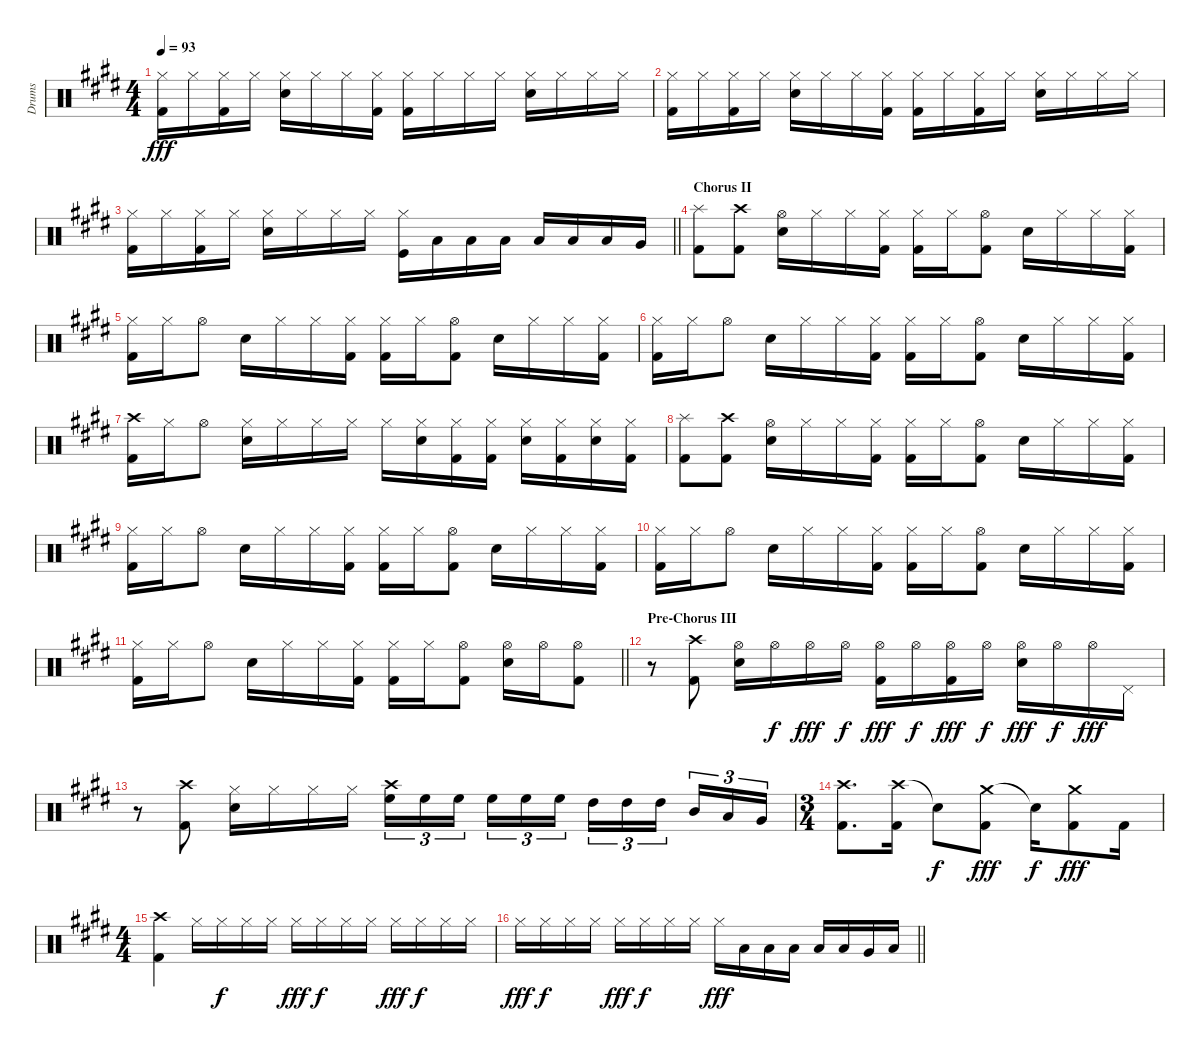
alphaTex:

\track ("Drums" "Drums") {instrument percussion}
\staff {score}
\articulation defaults
\ts (4 4)
\tempo 93
\clef neutral
\ks e
("Hi-Hat (closed)" "Kick (hit) 2").16{dy fff} "Hi-Hat (closed)".16 ("Hi-Hat (closed)" "Kick (hit) 2").16 "Hi-Hat (closed)".16 ("Hi-Hat (closed)" "Snare (hit) 2").16 "Hi-Hat (closed)".16 "Hi-Hat (closed)".16 ("Hi-Hat (closed)" "Kick (hit) 2").16 ("Hi-Hat (closed)" "Kick (hit) 2").16 "Hi-Hat (closed)".16 "Hi-Hat (closed)".16 "Hi-Hat (closed)".16 ("Hi-Hat (closed)" "Snare (hit) 2").16 "Hi-Hat (closed)".16 "Hi-Hat (closed)".16 "Hi-Hat (closed)".16 |
("Hi-Hat (closed)" "Kick (hit) 2").16 "Hi-Hat (closed)".16 ("Hi-Hat (closed)" "Kick (hit) 2").16 "Hi-Hat (closed)".16 ("Hi-Hat (closed)" "Snare (hit) 2").16 "Hi-Hat (closed)".16 "Hi-Hat (closed)".16 ("Hi-Hat (closed)" "Kick (hit) 2").16 ("Hi-Hat (closed)" "Kick (hit) 2").16 "Hi-Hat (closed)".16 ("Hi-Hat (closed)" "Kick (hit) 2").16 "Hi-Hat (closed)".16 ("Hi-Hat (closed)" "Snare (hit) 2").16 "Hi-Hat (closed)".16 "Hi-Hat (closed)".16 "Hi-Hat (closed)".16 |
\barLineRight lightlight
("Hi-Hat (closed)" "Kick (hit) 2").16 "Hi-Hat (closed)".16 ("Hi-Hat (closed)" "Kick (hit) 2").16 "Hi-Hat (closed)".16 ("Hi-Hat (closed)" "Snare (hit) 2").16 "Hi-Hat (closed)".16 "Hi-Hat (closed)".16 "Hi-Hat (closed)".16 ("Hi-Hat (closed)" "Kick (hit)").16 "Low Tom (hit)".16 "Low Tom (hit)".16 "Low Tom (hit)".16 "Low Tom (hit)".16 "Low Tom (hit)".16 "Low Tom (hit)".16 "Very Low Tom (hit)".16 |
\section ("" "Chorus II")
("Splash (hit)" "Kick (hit) 2").8 ("Crash high (hit)" "Kick (hit) 2").8 ("Hi-Hat (open)" "Snare (hit) 2").16 "Hi-Hat (closed)".16 "Hi-Hat (closed)".16 ("Hi-Hat (closed)" "Kick (hit) 2").16 ("Hi-Hat (closed)" "Kick (hit) 2").16 "Hi-Hat (closed)".16 ("Hi-Hat (open)" "Kick (hit) 2").8 "Snare (hit) 2".16 "Hi-Hat (closed)".16 "Hi-Hat (closed)".16 ("Hi-Hat (closed)" "Kick (hit) 2").16 |
("Hi-Hat (closed)" "Kick (hit) 2").16 "Hi-Hat (closed)".16 "Hi-Hat (open)".8 "Snare (hit) 2".16 "Hi-Hat (closed)".16 "Hi-Hat (closed)".16 ("Hi-Hat (closed)" "Kick (hit) 2").16 ("Hi-Hat (closed)" "Kick (hit) 2").16 "Hi-Hat (closed)".16 ("Hi-Hat (open)" "Kick (hit) 2").8 "Snare (hit) 2".16 "Hi-Hat (closed)".16 "Hi-Hat (closed)".16 ("Hi-Hat (closed)" "Kick (hit) 2").16 |
("Hi-Hat (closed)" "Kick (hit) 2").16 "Hi-Hat (closed)".16 "Hi-Hat (open)".8 "Snare (hit) 2".16 "Hi-Hat (closed)".16 "Hi-Hat (closed)".16 ("Hi-Hat (closed)" "Kick (hit) 2").16 ("Hi-Hat (closed)" "Kick (hit) 2").16 "Hi-Hat (closed)".16 ("Hi-Hat (open)" "Kick (hit) 2").8 "Snare (hit) 2".16 "Hi-Hat (closed)".16 "Hi-Hat (closed)".16 ("Hi-Hat (closed)" "Kick (hit) 2").16 |
("Crash high (hit)" "Kick (hit) 2").16 "Hi-Hat (closed)".16 "Hi-Hat (open)".8 ("Hi-Hat (closed)" "Snare (hit) 2").16 "Hi-Hat (closed)".16 "Hi-Hat (closed)".16 "Hi-Hat (closed)".16 "Hi-Hat (closed)".16 ("Hi-Hat (closed)" "Snare (hit) 2").16 ("Hi-Hat (closed)" "Kick (hit) 2").16 ("Hi-Hat (closed)" "Kick (hit) 2").16 ("Hi-Hat (closed)" "Snare (hit) 2").16 ("Hi-Hat (closed)" "Kick (hit) 2").16 ("Hi-Hat (closed)" "Snare (hit) 2").16 ("Hi-Hat (closed)" "Kick (hit) 2").16 |
("Splash (hit)" "Kick (hit) 2").8 ("Crash high (hit)" "Kick (hit) 2").8 ("Hi-Hat (open)" "Snare (hit) 2").16 "Hi-Hat (closed)".16 "Hi-Hat (closed)".16 ("Hi-Hat (closed)" "Kick (hit) 2").16 ("Hi-Hat (closed)" "Kick (hit) 2").16 "Hi-Hat (closed)".16 ("Hi-Hat (open)" "Kick (hit) 2").8 "Snare (hit) 2".16 "Hi-Hat (closed)".16 "Hi-Hat (closed)".16 ("Hi-Hat (closed)" "Kick (hit) 2").16 |
("Hi-Hat (closed)" "Kick (hit) 2").16 "Hi-Hat (closed)".16 "Hi-Hat (open)".8 "Snare (hit) 2".16 "Hi-Hat (closed)".16 "Hi-Hat (closed)".16 ("Hi-Hat (closed)" "Kick (hit) 2").16 ("Hi-Hat (closed)" "Kick (hit) 2").16 "Hi-Hat (closed)".16 ("Hi-Hat (open)" "Kick (hit) 2").8 "Snare (hit) 2".16 "Hi-Hat (closed)".16 "Hi-Hat (closed)".16 ("Hi-Hat (closed)" "Kick (hit) 2").16 |
("Hi-Hat (closed)" "Kick (hit) 2").16 "Hi-Hat (closed)".16 "Hi-Hat (open)".8 "Snare (hit) 2".16 "Hi-Hat (closed)".16 "Hi-Hat (closed)".16 ("Hi-Hat (closed)" "Kick (hit) 2").16 ("Hi-Hat (closed)" "Kick (hit) 2").16 "Hi-Hat (closed)".16 ("Hi-Hat (open)" "Kick (hit) 2").8 "Snare (hit) 2".16 "Hi-Hat (closed)".16 "Hi-Hat (closed)".16 ("Hi-Hat (closed)" "Kick (hit) 2").16 |
\barLineRight lightlight
("Hi-Hat (closed)" "Kick (hit) 2").16 "Hi-Hat (closed)".16 "Hi-Hat (open)".8 "Snare (hit) 2".16 "Hi-Hat (closed)".16 "Hi-Hat (closed)".16 ("Hi-Hat (closed)" "Kick (hit) 2").16 ("Hi-Hat (closed)" "Kick (hit) 2").16 "Hi-Hat (closed)".16 ("Hi-Hat (open)" "Kick (hit) 2").8 ("Hi-Hat (open)" "Snare (hit) 2").16 "Hi-Hat (open)".16 ("Hi-Hat (open)" "Kick (hit) 2").8 |
\section ("" "Pre-Chorus III")
r.8 ("Crash high (hit)" "Kick (hit) 2").8 ("Hi-Hat (open)" "Snare (hit) 2").16 "Hi-Hat (open)".16{dy f} "Hi-Hat (open)".16{dy fff} "Hi-Hat (open)".16{dy f} ("Hi-Hat (open)" "Kick (hit) 2").16{dy fff} "Hi-Hat (open)".16{dy f} ("Hi-Hat (open)" "Kick (hit) 2").16{dy fff} "Hi-Hat (open)".16{dy f} ("Hi-Hat (open)" "Snare (hit) 2").16{dy fff} "Hi-Hat (open)".16{dy f} "Hi-Hat (open)".16{dy fff} "Pedal Hi-Hat (hit)".16 |
r.8 ("Crash high (hit)" "Kick (hit) 2").8 ("Hi-Hat (closed)" "Snare (hit) 2").16 "Hi-Hat (closed)".16 "Hi-Hat (closed)".16 "Hi-Hat (closed)".16 ("Crash high (hit)" "High Floor Tom (hit)").16{tu (3 2)} "High Floor Tom (hit)".16{tu (3 2)} "High Floor Tom (hit)".16{tu (3 2) beam splitsecondary} "High Floor Tom (hit)".16{tu (3 2)} "High Floor Tom (hit)".16{tu (3 2)} "High Floor Tom (hit)".16{tu (3 2)} "High Tom (hit)".16{tu (3 2)} "High Tom (hit)".16{tu (3 2)} "High Tom (hit)".16{tu (3 2) beam splitsecondary} "Mid Tom (hit)".16{tu (3 2)} "Low Tom (hit)".16{tu (3 2)} "Very Low Tom (hit)".16{tu (3 2)} |
\ts (3 4)
("Crash high (hit)" "Kick (hit) 2").8{d} ("Crash high (hit)" "Kick (hit) 2").16 "Snare (hit)"{t}.8{dy f} ("Crash medium (hit)" "Kick (hit) 2").8{dy fff} "Snare (hit)"{t}.16{dy f} ("Crash medium (hit)" "Kick (hit) 2").8{dy fff} "Kick (hit) 2".16 |
\ts (4 4)
("Crash high (hit)" "Kick (hit) 2").4 "Hi-Hat (closed)".16 "Hi-Hat (closed)".16{dy f} "Hi-Hat (closed)".16 "Hi-Hat (closed)".16 "Hi-Hat (closed)".16{dy fff} "Hi-Hat (closed)".16{dy f} "Hi-Hat (closed)".16 "Hi-Hat (closed)".16 "Hi-Hat (closed)".16{dy fff} "Hi-Hat (closed)".16{dy f} "Hi-Hat (closed)".16 "Hi-Hat (closed)".16 |
\barLineRight lightlight "Hi-Hat (closed)".16{dy fff} "Hi-Hat (closed)".16{dy f} "Hi-Hat (closed)".16 "Hi-Hat (closed)".16 "Hi-Hat (closed)".16{dy fff} "Hi-Hat (closed)".16{dy f} "Hi-Hat (closed)".16 "Hi-Hat (closed)".16 "Hi-Hat (closed)".16{dy fff} "Low Tom (hit)".16 "Low Tom (hit)".16 "Low Tom (hit)".16 "Low Tom (hit)".16 "Low Tom (hit)".16 "Very Low Tom (hit)".16 "Low Floor Tom (hit)".16
